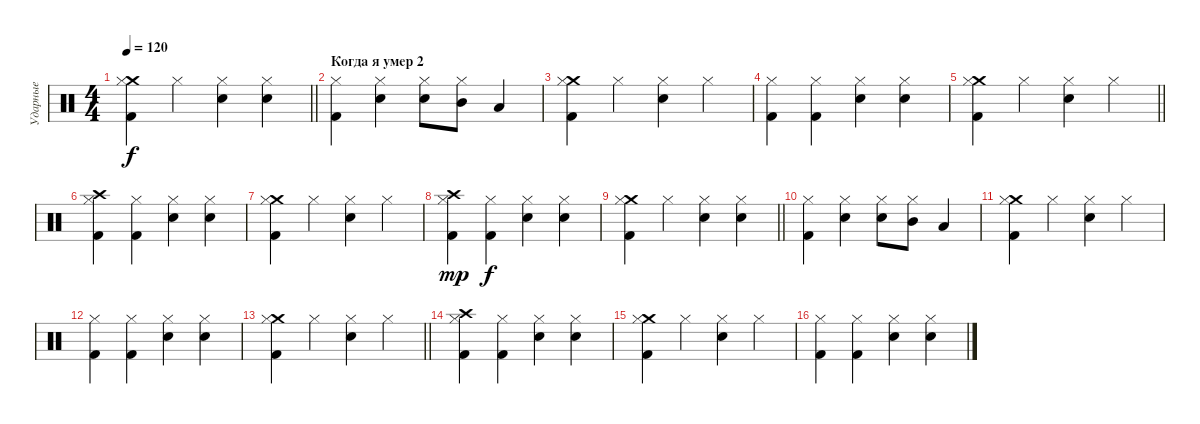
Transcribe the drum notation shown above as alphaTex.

\track ("Ударные" "Ударные") {instrument percussion}
\staff {score}
\articulation defaults
\ts (4 4)
\tempo 120
\clef neutral
\barLineRight lightlight
\ks c
("Crash medium (hit)" "Hi-Hat (closed)" "Kick (hit) 2").4{dy f} "Hi-Hat (closed)".4 ("Snare (hit) 2" "Hi-Hat (closed)").4 ("Snare (hit) 2" "Hi-Hat (closed)").4 |
\section ("" "Когда я умер 2")
("Hi-Hat (closed)" "Kick (hit) 2").4 ("Snare (hit) 2" "Hi-Hat (closed)").4 ("Snare (hit) 2" "Hi-Hat (closed)").8 ("Mid Tom (hit)" "Hi-Hat (closed)").8 "Low Tom (hit)".4 |
("Crash medium (hit)" "Hi-Hat (closed)" "Kick (hit) 2").4 "Hi-Hat (closed)".4 ("Snare (hit) 2" "Hi-Hat (closed)").4 "Hi-Hat (closed)".4 |
("Hi-Hat (closed)" "Kick (hit) 2").4 ("Hi-Hat (closed)" "Kick (hit) 2").4 ("Snare (hit) 2" "Hi-Hat (closed)").4 ("Snare (hit) 2" "Hi-Hat (closed)").4 |
\barLineRight lightlight
("Crash medium (hit)" "Hi-Hat (closed)" "Kick (hit) 2").4 "Hi-Hat (closed)".4 ("Snare (hit) 2" "Hi-Hat (closed)").4 "Hi-Hat (closed)".4 |
("Crash high (hit)" "Hi-Hat (closed)" "Kick (hit) 2").4 ("Hi-Hat (closed)" "Kick (hit) 2").4 ("Snare (hit) 2" "Hi-Hat (closed)").4 ("Snare (hit) 2" "Hi-Hat (closed)").4 |
("Crash medium (hit)" "Hi-Hat (closed)" "Kick (hit) 2").4 "Hi-Hat (closed)".4 ("Snare (hit) 2" "Hi-Hat (closed)").4 "Hi-Hat (closed)".4 |
("Crash high (hit)" "Hi-Hat (closed)" "Kick (hit) 2").4{dy mp} ("Hi-Hat (closed)" "Kick (hit) 2").4{dy f} ("Snare (hit) 2" "Hi-Hat (closed)").4 ("Snare (hit) 2" "Hi-Hat (closed)").4 |
\barLineRight lightlight
("Crash medium (hit)" "Hi-Hat (closed)" "Kick (hit) 2").4 "Hi-Hat (closed)".4 ("Snare (hit) 2" "Hi-Hat (closed)").4 ("Snare (hit) 2" "Hi-Hat (closed)").4 |
("Hi-Hat (closed)" "Kick (hit) 2").4 ("Snare (hit) 2" "Hi-Hat (closed)").4 ("Snare (hit) 2" "Hi-Hat (closed)").8 ("Mid Tom (hit)" "Hi-Hat (closed)").8 "Low Tom (hit)".4 |
("Crash medium (hit)" "Hi-Hat (closed)" "Kick (hit) 2").4 "Hi-Hat (closed)".4 ("Snare (hit) 2" "Hi-Hat (closed)").4 "Hi-Hat (closed)".4 |
("Hi-Hat (closed)" "Kick (hit) 2").4 ("Hi-Hat (closed)" "Kick (hit) 2").4 ("Snare (hit) 2" "Hi-Hat (closed)").4 ("Snare (hit) 2" "Hi-Hat (closed)").4 |
\barLineRight lightlight
("Crash medium (hit)" "Hi-Hat (closed)" "Kick (hit) 2").4 "Hi-Hat (closed)".4 ("Snare (hit) 2" "Hi-Hat (closed)").4 "Hi-Hat (closed)".4 |
("Crash high (hit)" "Hi-Hat (closed)" "Kick (hit) 2").4 ("Hi-Hat (closed)" "Kick (hit) 2").4 ("Snare (hit) 2" "Hi-Hat (closed)").4 ("Snare (hit) 2" "Hi-Hat (closed)").4 |
("Crash medium (hit)" "Hi-Hat (closed)" "Kick (hit) 2").4 "Hi-Hat (closed)".4 ("Snare (hit) 2" "Hi-Hat (closed)").4 "Hi-Hat (closed)".4 |
("Hi-Hat (closed)" "Kick (hit) 2").4 ("Hi-Hat (closed)" "Kick (hit) 2").4 ("Snare (hit) 2" "Hi-Hat (closed)").4 ("Snare (hit) 2" "Hi-Hat (closed)").4
